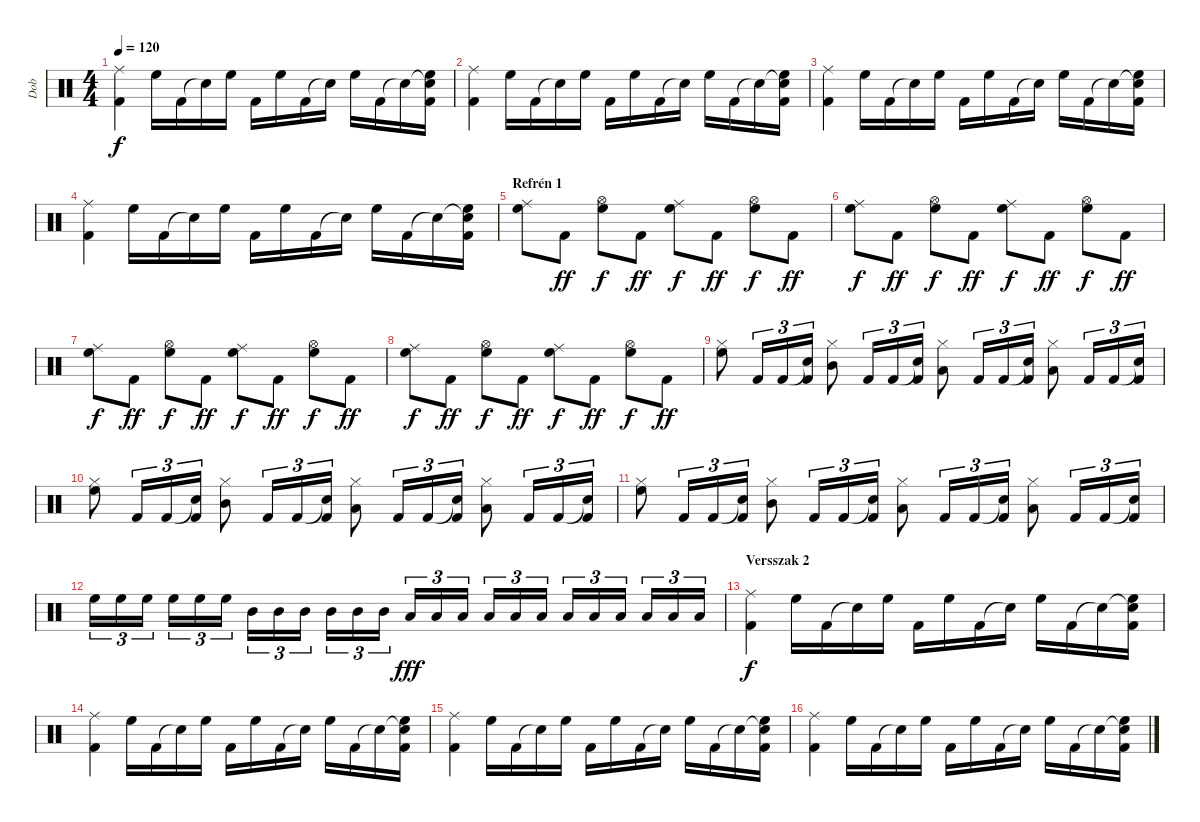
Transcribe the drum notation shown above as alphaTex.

\track ("Dob" "Dob") {instrument percussion}
\staff {score}
\articulation defaults
\ts (4 4)
\tempo 120
\clef neutral
\ks c
("Ride (middle)" "Kick (hit) 2").4{dy f} "High Floor Tom (hit)".16 "Kick (hit) 2".16 "Snare (hit)"{t}.16 "High Floor Tom (hit)".16 "Kick (hit) 2".16 "High Floor Tom (hit)".16 "Kick (hit) 2".16 "Snare (hit)"{t}.16 "High Floor Tom (hit)".16 "Kick (hit) 2".16 "Snare (hit)"{t}.16 ("Snare (hit)"{t} "High Floor Tom (hit)" "Kick (hit) 2").16 |
("Ride (middle)" "Kick (hit) 2").4 "High Floor Tom (hit)".16 "Kick (hit) 2".16 "Snare (hit)"{t}.16 "High Floor Tom (hit)".16 "Kick (hit) 2".16 "High Floor Tom (hit)".16 "Kick (hit) 2".16 "Snare (hit)"{t}.16 "High Floor Tom (hit)".16 "Kick (hit) 2".16 "Snare (hit)"{t}.16 ("Snare (hit)"{t} "High Floor Tom (hit)" "Kick (hit) 2").16 |
("Ride (middle)" "Kick (hit) 2").4 "High Floor Tom (hit)".16 "Kick (hit) 2".16 "Snare (hit)"{t}.16 "High Floor Tom (hit)".16 "Kick (hit) 2".16 "High Floor Tom (hit)".16 "Kick (hit) 2".16 "Snare (hit)"{t}.16 "High Floor Tom (hit)".16 "Kick (hit) 2".16 "Snare (hit)"{t}.16 ("Snare (hit)"{t} "High Floor Tom (hit)" "Kick (hit) 2").16 |
("Ride (middle)" "Kick (hit) 2").4 "High Floor Tom (hit)".16 "Kick (hit) 2".16 "Snare (hit)"{t}.16 "High Floor Tom (hit)".16 "Kick (hit) 2".16 "High Floor Tom (hit)".16 "Kick (hit) 2".16 "Snare (hit)"{t}.16 "High Floor Tom (hit)".16 "Kick (hit) 2".16 "Snare (hit)"{t}.16 ("Snare (hit)"{t} "High Floor Tom (hit)" "Kick (hit) 2").16 |
\section ("" "Refrén 1")
("Ride (middle)" "High Floor Tom (hit)").8 "Kick (hit) 2".8{dy ff} ("Hi-Hat (open)" "High Floor Tom (hit)").8{dy f} "Kick (hit) 2".8{dy ff} ("Ride (middle)" "High Floor Tom (hit)").8{dy f} "Kick (hit) 2".8{dy ff} ("Hi-Hat (open)" "High Floor Tom (hit)").8{dy f} "Kick (hit) 2".8{dy ff} |
("Ride (middle)" "High Floor Tom (hit)").8{dy f} "Kick (hit) 2".8{dy ff} ("Hi-Hat (open)" "High Floor Tom (hit)").8{dy f} "Kick (hit) 2".8{dy ff} ("Ride (middle)" "High Floor Tom (hit)").8{dy f} "Kick (hit) 2".8{dy ff} ("Hi-Hat (open)" "High Floor Tom (hit)").8{dy f} "Kick (hit) 2".8{dy ff} |
("Ride (middle)" "High Floor Tom (hit)").8{dy f} "Kick (hit) 2".8{dy ff} ("Hi-Hat (open)" "High Floor Tom (hit)").8{dy f} "Kick (hit) 2".8{dy ff} ("Ride (middle)" "High Floor Tom (hit)").8{dy f} "Kick (hit) 2".8{dy ff} ("Hi-Hat (open)" "High Floor Tom (hit)").8{dy f} "Kick (hit) 2".8{dy ff} |
("Ride (middle)" "High Floor Tom (hit)").8{dy f} "Kick (hit) 2".8{dy ff} ("Hi-Hat (open)" "High Floor Tom (hit)").8{dy f} "Kick (hit) 2".8{dy ff} ("Ride (middle)" "High Floor Tom (hit)").8{dy f} "Kick (hit) 2".8{dy ff} ("Hi-Hat (open)" "High Floor Tom (hit)").8{dy f} "Kick (hit) 2".8{dy ff} |
("Hi-Hat (closed)" "High Floor Tom (hit)").8 "Kick (hit) 2".16{tu (3 2)} "Kick (hit) 2".16{tu (3 2)} ("Snare (hit)"{t} "Kick (hit) 2").16{tu (3 2)} ("Hi-Hat (closed)" "Mid Tom (hit)").8 "Kick (hit) 2".16{tu (3 2)} "Kick (hit) 2".16{tu (3 2)} ("Snare (hit)"{t} "Kick (hit) 2").16{tu (3 2)} ("Hi-Hat (closed)" "Low Tom (hit)").8 "Kick (hit) 2".16{tu (3 2)} "Kick (hit) 2".16{tu (3 2)} ("Snare (hit)"{t} "Kick (hit) 2").16{tu (3 2)} ("Hi-Hat (closed)" "Low Floor Tom (hit)").8 "Kick (hit) 2".16{tu (3 2)} "Kick (hit) 2".16{tu (3 2)} ("Snare (hit)"{t} "Kick (hit) 2").16{tu (3 2)} |
("Hi-Hat (closed)" "High Floor Tom (hit)").8 "Kick (hit) 2".16{tu (3 2)} "Kick (hit) 2".16{tu (3 2)} ("Snare (hit)"{t} "Kick (hit) 2").16{tu (3 2)} ("Hi-Hat (closed)" "Mid Tom (hit)").8 "Kick (hit) 2".16{tu (3 2)} "Kick (hit) 2".16{tu (3 2)} ("Snare (hit)"{t} "Kick (hit) 2").16{tu (3 2)} ("Hi-Hat (closed)" "Low Tom (hit)").8 "Kick (hit) 2".16{tu (3 2)} "Kick (hit) 2".16{tu (3 2)} ("Snare (hit)"{t} "Kick (hit) 2").16{tu (3 2)} ("Hi-Hat (closed)" "Low Floor Tom (hit)").8 "Kick (hit) 2".16{tu (3 2)} "Kick (hit) 2".16{tu (3 2)} ("Snare (hit)"{t} "Kick (hit) 2").16{tu (3 2)} |
("Hi-Hat (closed)" "High Floor Tom (hit)").8 "Kick (hit) 2".16{tu (3 2)} "Kick (hit) 2".16{tu (3 2)} ("Snare (hit)"{t} "Kick (hit) 2").16{tu (3 2)} ("Hi-Hat (closed)" "Mid Tom (hit)").8 "Kick (hit) 2".16{tu (3 2)} "Kick (hit) 2".16{tu (3 2)} ("Snare (hit)"{t} "Kick (hit) 2").16{tu (3 2)} ("Hi-Hat (closed)" "Low Tom (hit)").8 "Kick (hit) 2".16{tu (3 2)} "Kick (hit) 2".16{tu (3 2)} ("Snare (hit)"{t} "Kick (hit) 2").16{tu (3 2)} ("Hi-Hat (closed)" "Low Floor Tom (hit)").8 "Kick (hit) 2".16{tu (3 2)} "Kick (hit) 2".16{tu (3 2)} ("Snare (hit)"{t} "Kick (hit) 2").16{tu (3 2)} |
"High Floor Tom (hit)".16{tu (3 2)} "High Floor Tom (hit)".16{tu (3 2)} "High Floor Tom (hit)".16{tu (3 2)} "High Floor Tom (hit)".16{tu (3 2)} "High Floor Tom (hit)".16{tu (3 2)} "High Floor Tom (hit)".16{tu (3 2)} "Mid Tom (hit)".16{tu (3 2)} "Mid Tom (hit)".16{tu (3 2)} "Mid Tom (hit)".16{tu (3 2)} "Mid Tom (hit)".16{tu (3 2)} "Mid Tom (hit)".16{tu (3 2)} "Mid Tom (hit)".16{tu (3 2)} "Low Floor Tom (hit)".16{tu (3 2) dy fff} "Low Floor Tom (hit)".16{tu (3 2)} "Low Floor Tom (hit)".16{tu (3 2)} "Low Floor Tom (hit)".16{tu (3 2)} "Low Floor Tom (hit)".16{tu (3 2)} "Low Floor Tom (hit)".16{tu (3 2)} "Low Tom (hit)".16{tu (3 2)} "Low Tom (hit)".16{tu (3 2)} "Low Tom (hit)".16{tu (3 2)} "Low Tom (hit)".16{tu (3 2)} "Low Tom (hit)".16{tu (3 2)} "Low Tom (hit)".16{tu (3 2)} |
\section ("" "Versszak 2")
("Ride (middle)" "Kick (hit) 2").4{dy f} "High Floor Tom (hit)".16 "Kick (hit) 2".16 "Snare (hit)"{t}.16 "High Floor Tom (hit)".16 "Kick (hit) 2".16 "High Floor Tom (hit)".16 "Kick (hit) 2".16 "Snare (hit)"{t}.16 "High Floor Tom (hit)".16 "Kick (hit) 2".16 "Snare (hit)"{t}.16 ("Snare (hit)"{t} "High Floor Tom (hit)" "Kick (hit) 2").16 |
("Ride (middle)" "Kick (hit) 2").4 "High Floor Tom (hit)".16 "Kick (hit) 2".16 "Snare (hit)"{t}.16 "High Floor Tom (hit)".16 "Kick (hit) 2".16 "High Floor Tom (hit)".16 "Kick (hit) 2".16 "Snare (hit)"{t}.16 "High Floor Tom (hit)".16 "Kick (hit) 2".16 "Snare (hit)"{t}.16 ("Snare (hit)"{t} "High Floor Tom (hit)" "Kick (hit) 2").16 |
("Ride (middle)" "Kick (hit) 2").4 "High Floor Tom (hit)".16 "Kick (hit) 2".16 "Snare (hit)"{t}.16 "High Floor Tom (hit)".16 "Kick (hit) 2".16 "High Floor Tom (hit)".16 "Kick (hit) 2".16 "Snare (hit)"{t}.16 "High Floor Tom (hit)".16 "Kick (hit) 2".16 "Snare (hit)"{t}.16 ("Snare (hit)"{t} "High Floor Tom (hit)" "Kick (hit) 2").16 |
("Ride (middle)" "Kick (hit) 2").4 "High Floor Tom (hit)".16 "Kick (hit) 2".16 "Snare (hit)"{t}.16 "High Floor Tom (hit)".16 "Kick (hit) 2".16 "High Floor Tom (hit)".16 "Kick (hit) 2".16 "Snare (hit)"{t}.16 "High Floor Tom (hit)".16 "Kick (hit) 2".16 "Snare (hit)"{t}.16 ("Snare (hit)"{t} "High Floor Tom (hit)" "Kick (hit) 2").16
